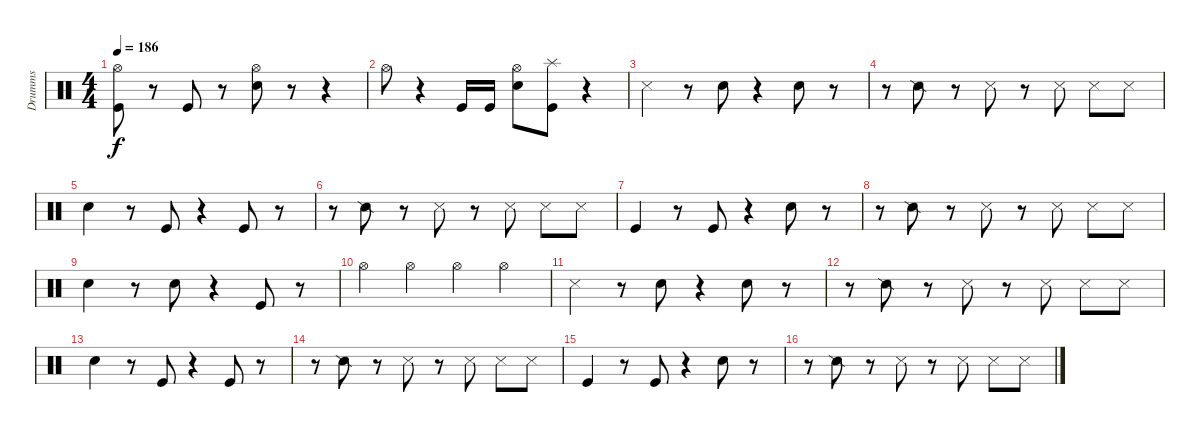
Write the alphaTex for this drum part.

\track ("Drumms" "Drumms") {instrument percussion}
\staff {score}
\articulation defaults
\ts (4 4)
\tempo 186
\clef neutral
\ks c
("Hi-Hat (open)" "Kick (hit)").8{dy f} r.8 "Kick (hit)".8 r.8 ("Hi-Hat (open)" "Snare (hit) 2").8 r.8 r.4 |
"Hi-Hat (open)".8 r.4 "Kick (hit)".16 "Kick (hit)".16 ("Hi-Hat (open)" "Snare (hit) 2").8 ("Splash (hit)" "Kick (hit)").8 r.4 |
"Metronome (hit)".4 r.8 "Snare (hit) 2".8 r.4 "Snare (hit) 2".8 r.8 |
r.8 "Snare (side stick) 2".8 r.8 "Snare (side stick) 3".8 r.8 "Snare (side stick) 3".8 "Metronome (hit)".8 "Snare (side stick) 3".8 |
"Snare (hit) 2".4 r.8 "Kick (hit)".8 r.4 "Kick (hit)".8 r.8 |
r.8 "Snare (side stick) 2".8 r.8 "Snare (side stick) 3".8 r.8 "Snare (side stick) 3".8 "Metronome (hit)".8 "Snare (side stick) 3".8 |
"Kick (hit)".4 r.8 "Kick (hit)".8 r.4 "Snare (hit) 2".8 r.8 |
r.8 "Snare (side stick) 2".8 r.8 "Snare (side stick) 3".8 r.8 "Snare (side stick) 3".8 "Metronome (hit)".8 "Snare (side stick) 3".8 |
"Snare (hit) 2".4 r.8 "Snare (hit) 2".8 r.4 "Kick (hit)".8 r.8 |
"Hi-Hat (open)".4 "Hi-Hat (open)".4 "Hi-Hat (open)".4 "Hi-Hat (open)".4 |
"Metronome (hit)".4 r.8 "Snare (hit) 2".8 r.4 "Snare (hit) 2".8 r.8 |
r.8 "Snare (side stick) 2".8 r.8 "Snare (side stick) 3".8 r.8 "Snare (side stick) 3".8 "Metronome (hit)".8 "Snare (side stick) 3".8 |
"Snare (hit) 2".4 r.8 "Kick (hit)".8 r.4 "Kick (hit)".8 r.8 |
r.8 "Snare (side stick) 2".8 r.8 "Snare (side stick) 3".8 r.8 "Snare (side stick) 3".8 "Metronome (hit)".8 "Snare (side stick) 3".8 |
"Kick (hit)".4 r.8 "Kick (hit)".8 r.4 "Snare (hit) 2".8 r.8 |
r.8 "Snare (side stick) 2".8 r.8 "Snare (side stick) 3".8 r.8 "Snare (side stick) 3".8 "Metronome (hit)".8 "Snare (side stick) 3".8
